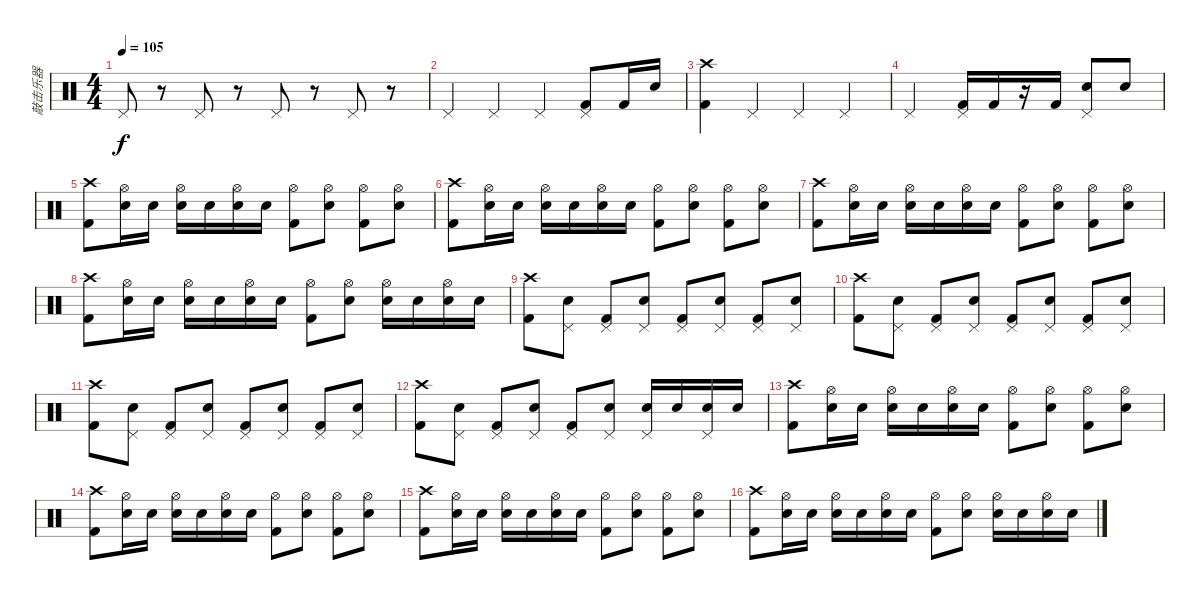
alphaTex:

\track ("敲击乐器" "敲击乐器") {instrument percussion}
\staff {score}
\articulation defaults
\ts (4 4)
\tempo 105
\clef neutral
\ks c "Pedal Hi-Hat (hit)".8{dy f}
r.8 "Pedal Hi-Hat (hit)".8 r.8 "Pedal Hi-Hat (hit)".8 r.8 "Pedal Hi-Hat (hit)".8 r.8 |
"Pedal Hi-Hat (hit)".4 "Pedal Hi-Hat (hit)".4 "Pedal Hi-Hat (hit)".4 ("Pedal Hi-Hat (hit)" "Kick (hit) 2").8 "Kick (hit) 2".16 "Snare (hit) 2".16 |
("Crash high (hit)" "Kick (hit) 2").4 "Pedal Hi-Hat (hit)".4 "Pedal Hi-Hat (hit)".4 "Pedal Hi-Hat (hit)".4 |
"Pedal Hi-Hat (hit)".2 ("Pedal Hi-Hat (hit)" "Kick (hit) 2").16 "Kick (hit) 2".16 r.16 "Kick (hit) 2".16 ("Pedal Hi-Hat (hit)" "Snare (hit) 2").8 "Snare (hit) 2".8 |
("Crash high (hit)" "Kick (hit) 2").8 ("Hi-Hat (open)" "Snare (hit) 2").16 "Snare (hit) 2".16 ("Hi-Hat (open)" "Snare (hit) 2").16 "Snare (hit) 2".16 ("Hi-Hat (open)" "Snare (hit) 2").16 "Snare (hit) 2".16 ("Hi-Hat (open)" "Kick (hit) 2").8 ("Hi-Hat (open)" "Snare (hit) 2").8 ("Hi-Hat (open)" "Kick (hit) 2").8 ("Hi-Hat (open)" "Snare (hit) 2").8 |
("Crash high (hit)" "Kick (hit) 2").8 ("Hi-Hat (open)" "Snare (hit) 2").16 "Snare (hit) 2".16 ("Hi-Hat (open)" "Snare (hit) 2").16 "Snare (hit) 2".16 ("Hi-Hat (open)" "Snare (hit) 2").16 "Snare (hit) 2".16 ("Hi-Hat (open)" "Kick (hit) 2").8 ("Hi-Hat (open)" "Snare (hit) 2").8 ("Hi-Hat (open)" "Kick (hit) 2").8 ("Hi-Hat (open)" "Snare (hit) 2").8 |
("Crash high (hit)" "Kick (hit) 2").8 ("Hi-Hat (open)" "Snare (hit) 2").16 "Snare (hit) 2".16 ("Hi-Hat (open)" "Snare (hit) 2").16 "Snare (hit) 2".16 ("Hi-Hat (open)" "Snare (hit) 2").16 "Snare (hit) 2".16 ("Hi-Hat (open)" "Kick (hit) 2").8 ("Hi-Hat (open)" "Snare (hit) 2").8 ("Hi-Hat (open)" "Kick (hit) 2").8 ("Hi-Hat (open)" "Snare (hit) 2").8 |
("Crash high (hit)" "Kick (hit) 2").8 ("Hi-Hat (open)" "Snare (hit) 2").16 "Snare (hit) 2".16 ("Hi-Hat (open)" "Snare (hit) 2").16 "Snare (hit) 2".16 ("Hi-Hat (open)" "Snare (hit) 2").16 "Snare (hit) 2".16 ("Hi-Hat (open)" "Kick (hit) 2").8 ("Hi-Hat (open)" "Snare (hit) 2").8 ("Hi-Hat (open)" "Snare (hit) 2").16 "Snare (hit) 2".16 ("Hi-Hat (open)" "Snare (hit) 2").16 "Snare (hit) 2".16 |
("Crash high (hit)" "Kick (hit) 2").8 ("Pedal Hi-Hat (hit)" "Snare (hit) 2").8 ("Pedal Hi-Hat (hit)" "Kick (hit) 2").8 ("Pedal Hi-Hat (hit)" "Snare (hit) 2").8 ("Pedal Hi-Hat (hit)" "Kick (hit) 2").8 ("Pedal Hi-Hat (hit)" "Snare (hit) 2").8 ("Pedal Hi-Hat (hit)" "Kick (hit) 2").8 ("Pedal Hi-Hat (hit)" "Snare (hit) 2").8 |
("Crash high (hit)" "Kick (hit) 2").8 ("Pedal Hi-Hat (hit)" "Snare (hit) 2").8 ("Pedal Hi-Hat (hit)" "Kick (hit) 2").8 ("Pedal Hi-Hat (hit)" "Snare (hit) 2").8 ("Pedal Hi-Hat (hit)" "Kick (hit) 2").8 ("Pedal Hi-Hat (hit)" "Snare (hit) 2").8 ("Pedal Hi-Hat (hit)" "Kick (hit) 2").8 ("Pedal Hi-Hat (hit)" "Snare (hit) 2").8 |
("Crash high (hit)" "Kick (hit) 2").8 ("Pedal Hi-Hat (hit)" "Snare (hit) 2").8 ("Pedal Hi-Hat (hit)" "Kick (hit) 2").8 ("Pedal Hi-Hat (hit)" "Snare (hit) 2").8 ("Pedal Hi-Hat (hit)" "Kick (hit) 2").8 ("Pedal Hi-Hat (hit)" "Snare (hit) 2").8 ("Pedal Hi-Hat (hit)" "Kick (hit) 2").8 ("Pedal Hi-Hat (hit)" "Snare (hit) 2").8 |
("Crash high (hit)" "Kick (hit) 2").8 ("Pedal Hi-Hat (hit)" "Snare (hit) 2").8 ("Pedal Hi-Hat (hit)" "Kick (hit) 2").8 ("Pedal Hi-Hat (hit)" "Snare (hit) 2").8 ("Pedal Hi-Hat (hit)" "Kick (hit) 2").8 ("Pedal Hi-Hat (hit)" "Snare (hit) 2").8 ("Pedal Hi-Hat (hit)" "Snare (hit) 2").16 "Snare (hit) 2".16 ("Pedal Hi-Hat (hit)" "Snare (hit) 2").16 "Snare (hit) 2".16 |
("Crash high (hit)" "Kick (hit) 2").8 ("Hi-Hat (open)" "Snare (hit) 2").16 "Snare (hit) 2".16 ("Hi-Hat (open)" "Snare (hit) 2").16 "Snare (hit) 2".16 ("Hi-Hat (open)" "Snare (hit) 2").16 "Snare (hit) 2".16 ("Hi-Hat (open)" "Kick (hit) 2").8 ("Hi-Hat (open)" "Snare (hit) 2").8 ("Hi-Hat (open)" "Kick (hit) 2").8 ("Hi-Hat (open)" "Snare (hit) 2").8 |
("Crash high (hit)" "Kick (hit) 2").8 ("Hi-Hat (open)" "Snare (hit) 2").16 "Snare (hit) 2".16 ("Hi-Hat (open)" "Snare (hit) 2").16 "Snare (hit) 2".16 ("Hi-Hat (open)" "Snare (hit) 2").16 "Snare (hit) 2".16 ("Hi-Hat (open)" "Kick (hit) 2").8 ("Hi-Hat (open)" "Snare (hit) 2").8 ("Hi-Hat (open)" "Kick (hit) 2").8 ("Hi-Hat (open)" "Snare (hit) 2").8 |
("Crash high (hit)" "Kick (hit) 2").8 ("Hi-Hat (open)" "Snare (hit) 2").16 "Snare (hit) 2".16 ("Hi-Hat (open)" "Snare (hit) 2").16 "Snare (hit) 2".16 ("Hi-Hat (open)" "Snare (hit) 2").16 "Snare (hit) 2".16 ("Hi-Hat (open)" "Kick (hit) 2").8 ("Hi-Hat (open)" "Snare (hit) 2").8 ("Hi-Hat (open)" "Kick (hit) 2").8 ("Hi-Hat (open)" "Snare (hit) 2").8 |
("Crash high (hit)" "Kick (hit) 2").8 ("Hi-Hat (open)" "Snare (hit) 2").16 "Snare (hit) 2".16 ("Hi-Hat (open)" "Snare (hit) 2").16 "Snare (hit) 2".16 ("Hi-Hat (open)" "Snare (hit) 2").16 "Snare (hit) 2".16 ("Hi-Hat (open)" "Kick (hit) 2").8 ("Hi-Hat (open)" "Snare (hit) 2").8 ("Hi-Hat (open)" "Snare (hit) 2").16 "Snare (hit) 2".16 ("Hi-Hat (open)" "Snare (hit) 2").16 "Snare (hit) 2".16
